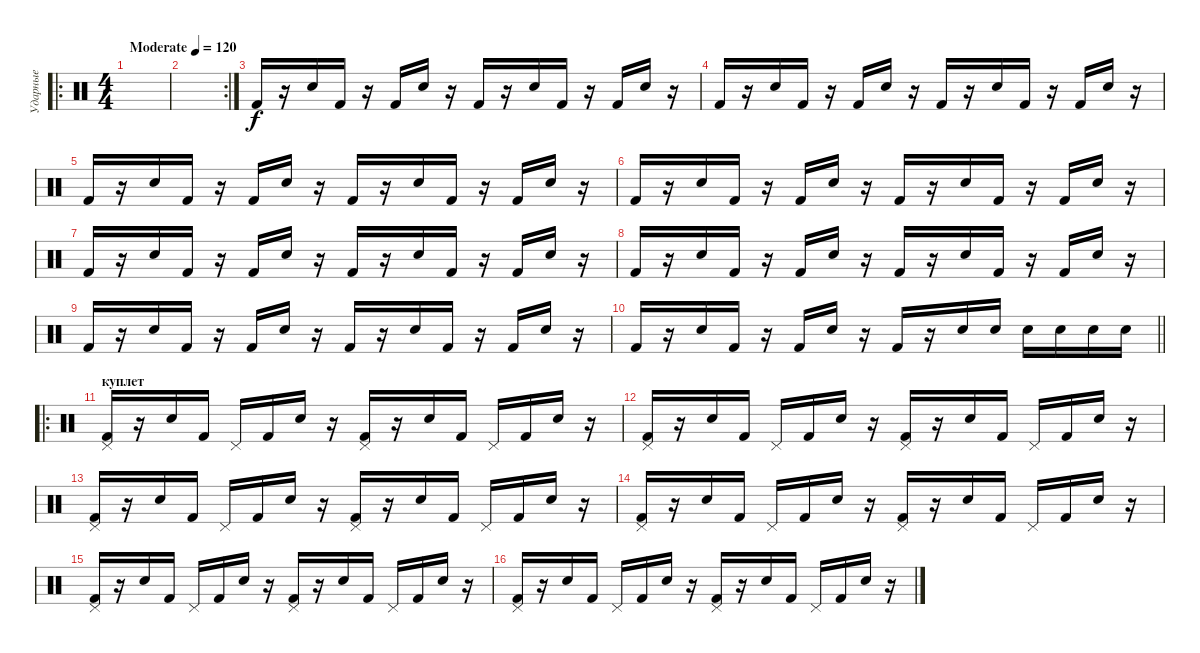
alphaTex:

\track ("Ударные" "Ударные") {instrument percussion}
\staff {score}
\articulation defaults
\ro
\ts (4 4)
\tempo (120 "Moderate")
\clef neutral
\ks c
|
\rc 2
|
"Kick (hit) 2".16 r.16 "Electric Snare (hit)".16 "Kick (hit) 2".16 r.16 "Kick (hit) 2".16 "Electric Snare (hit)".16 r.16 "Kick (hit) 2".16 r.16 "Electric Snare (hit)".16 "Kick (hit) 2".16 r.16 "Kick (hit) 2".16 "Electric Snare (hit)".16 r.16 |
"Kick (hit) 2".16 r.16 "Electric Snare (hit)".16 "Kick (hit) 2".16 r.16 "Kick (hit) 2".16 "Electric Snare (hit)".16 r.16 "Kick (hit) 2".16 r.16 "Electric Snare (hit)".16 "Kick (hit) 2".16 r.16 "Kick (hit) 2".16 "Electric Snare (hit)".16 r.16 |
"Kick (hit) 2".16 r.16 "Electric Snare (hit)".16 "Kick (hit) 2".16 r.16 "Kick (hit) 2".16 "Electric Snare (hit)".16 r.16 "Kick (hit) 2".16 r.16 "Electric Snare (hit)".16 "Kick (hit) 2".16 r.16 "Kick (hit) 2".16 "Electric Snare (hit)".16 r.16 |
"Kick (hit) 2".16 r.16 "Electric Snare (hit)".16 "Kick (hit) 2".16 r.16 "Kick (hit) 2".16 "Electric Snare (hit)".16 r.16 "Kick (hit) 2".16 r.16 "Electric Snare (hit)".16 "Kick (hit) 2".16 r.16 "Kick (hit) 2".16 "Electric Snare (hit)".16 r.16 |
"Kick (hit) 2".16 r.16 "Electric Snare (hit)".16 "Kick (hit) 2".16 r.16 "Kick (hit) 2".16 "Electric Snare (hit)".16 r.16 "Kick (hit) 2".16 r.16 "Electric Snare (hit)".16 "Kick (hit) 2".16 r.16 "Kick (hit) 2".16 "Electric Snare (hit)".16 r.16 |
"Kick (hit) 2".16 r.16 "Electric Snare (hit)".16 "Kick (hit) 2".16 r.16 "Kick (hit) 2".16 "Electric Snare (hit)".16 r.16 "Kick (hit) 2".16 r.16 "Electric Snare (hit)".16 "Kick (hit) 2".16 r.16 "Kick (hit) 2".16 "Electric Snare (hit)".16 r.16 |
"Kick (hit) 2".16 r.16 "Electric Snare (hit)".16 "Kick (hit) 2".16 r.16 "Kick (hit) 2".16 "Electric Snare (hit)".16 r.16 "Kick (hit) 2".16 r.16 "Electric Snare (hit)".16 "Kick (hit) 2".16 r.16 "Kick (hit) 2".16 "Electric Snare (hit)".16 r.16 |
\barLineRight lightlight "Kick (hit) 2".16
r.16 "Electric Snare (hit)".16 "Kick (hit) 2".16 r.16 "Kick (hit) 2".16 "Electric Snare (hit)".16 r.16 "Kick (hit) 2".16 r.16 "Electric Snare (hit)".16 "Electric Snare (hit)".16 "Electric Snare (hit)".16 "Electric Snare (hit)".16 "Electric Snare (hit)".16 "Electric Snare (hit)".16 |
\ro
\section ("" "куплет")
("Pedal Hi-Hat (hit)" "Kick (hit) 2").16 r.16 "Electric Snare (hit)".16 "Kick (hit) 2".16 "Pedal Hi-Hat (hit)".16 "Kick (hit) 2".16 "Electric Snare (hit)".16 r.16 ("Pedal Hi-Hat (hit)" "Kick (hit) 2").16 r.16 "Electric Snare (hit)".16 "Kick (hit) 2".16 "Pedal Hi-Hat (hit)".16 "Kick (hit) 2".16 "Electric Snare (hit)".16 r.16 |
("Pedal Hi-Hat (hit)" "Kick (hit) 2").16 r.16 "Electric Snare (hit)".16 "Kick (hit) 2".16 "Pedal Hi-Hat (hit)".16 "Kick (hit) 2".16 "Electric Snare (hit)".16 r.16 ("Pedal Hi-Hat (hit)" "Kick (hit) 2").16 r.16 "Electric Snare (hit)".16 "Kick (hit) 2".16 "Pedal Hi-Hat (hit)".16 "Kick (hit) 2".16 "Electric Snare (hit)".16 r.16 |
("Pedal Hi-Hat (hit)" "Kick (hit) 2").16 r.16 "Electric Snare (hit)".16 "Kick (hit) 2".16 "Pedal Hi-Hat (hit)".16 "Kick (hit) 2".16 "Electric Snare (hit)".16 r.16 ("Pedal Hi-Hat (hit)" "Kick (hit) 2").16 r.16 "Electric Snare (hit)".16 "Kick (hit) 2".16 "Pedal Hi-Hat (hit)".16 "Kick (hit) 2".16 "Electric Snare (hit)".16 r.16 |
("Pedal Hi-Hat (hit)" "Kick (hit) 2").16 r.16 "Electric Snare (hit)".16 "Kick (hit) 2".16 "Pedal Hi-Hat (hit)".16 "Kick (hit) 2".16 "Electric Snare (hit)".16 r.16 ("Pedal Hi-Hat (hit)" "Kick (hit) 2").16 r.16 "Electric Snare (hit)".16 "Kick (hit) 2".16 "Pedal Hi-Hat (hit)".16 "Kick (hit) 2".16 "Electric Snare (hit)".16 r.16 |
("Pedal Hi-Hat (hit)" "Kick (hit) 2").16 r.16 "Electric Snare (hit)".16 "Kick (hit) 2".16 "Pedal Hi-Hat (hit)".16 "Kick (hit) 2".16 "Electric Snare (hit)".16 r.16 ("Pedal Hi-Hat (hit)" "Kick (hit) 2").16 r.16 "Electric Snare (hit)".16 "Kick (hit) 2".16 "Pedal Hi-Hat (hit)".16 "Kick (hit) 2".16 "Electric Snare (hit)".16 r.16 |
("Pedal Hi-Hat (hit)" "Kick (hit) 2").16 r.16 "Electric Snare (hit)".16 "Kick (hit) 2".16 "Pedal Hi-Hat (hit)".16 "Kick (hit) 2".16 "Electric Snare (hit)".16 r.16 ("Pedal Hi-Hat (hit)" "Kick (hit) 2").16 r.16 "Electric Snare (hit)".16 "Kick (hit) 2".16 "Pedal Hi-Hat (hit)".16 "Kick (hit) 2".16 "Electric Snare (hit)".16 r.16
